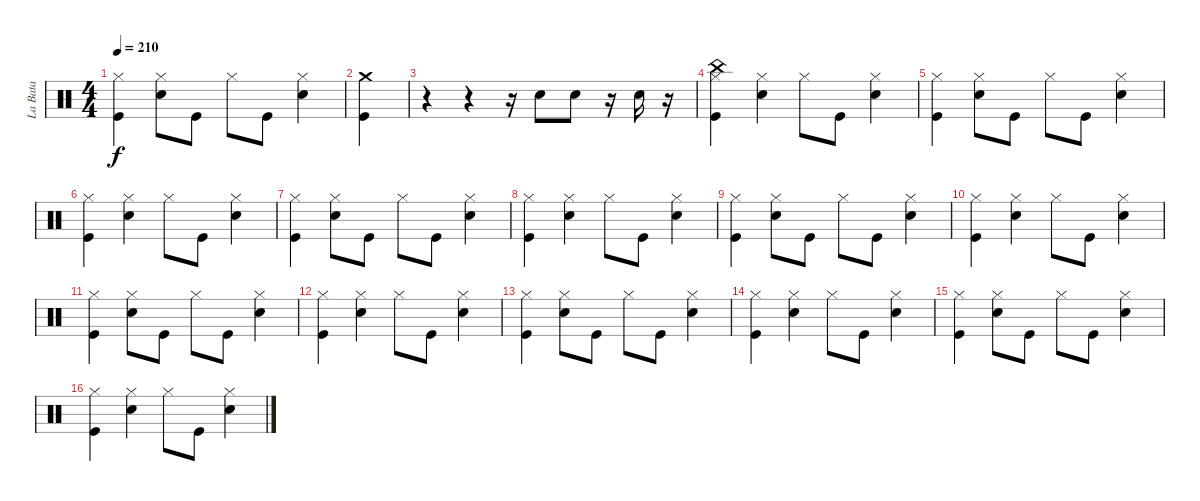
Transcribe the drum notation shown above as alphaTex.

\track ("La Bata" "La Bata") {instrument percussion}
\staff {score}
\articulation defaults
\ts (4 4)
\tempo 210
\clef neutral
\ks c
("Hi-Hat (closed)" "Kick (hit)").4{dy f} ("Snare (hit) 2" "Hi-Hat (closed)").8 "Kick (hit)".8 "Hi-Hat (closed)".8 "Kick (hit)".8 ("Hi-Hat (closed)" "Snare (hit) 2").4 |
("Kick (hit)" "Crash medium (hit)").4 |
r.4 r.4 r.16 "Snare (hit) 2".8 "Snare (hit) 2".8 r.16 "Snare (hit) 2".16 r.16 |
("Kick (hit)" "Hi-Hat (closed)" "China (hit)").4 ("Snare (hit) 2" "Hi-Hat (closed)").4 "Hi-Hat (closed)".8 "Kick (hit)".8 ("Snare (hit) 2" "Hi-Hat (closed)").4 |
("Hi-Hat (closed)" "Kick (hit)").4 ("Snare (hit) 2" "Hi-Hat (closed)").8 "Kick (hit)".8 "Hi-Hat (closed)".8 "Kick (hit)".8 ("Hi-Hat (closed)" "Snare (hit) 2").4 |
("Kick (hit)" "Hi-Hat (closed)").4 ("Snare (hit) 2" "Hi-Hat (closed)").4 "Hi-Hat (closed)".8 "Kick (hit)".8 ("Snare (hit) 2" "Hi-Hat (closed)").4 |
("Hi-Hat (closed)" "Kick (hit)").4 ("Snare (hit) 2" "Hi-Hat (closed)").8 "Kick (hit)".8 "Hi-Hat (closed)".8 "Kick (hit)".8 ("Hi-Hat (closed)" "Snare (hit) 2").4 |
("Kick (hit)" "Hi-Hat (closed)").4 ("Snare (hit) 2" "Hi-Hat (closed)").4 "Hi-Hat (closed)".8 "Kick (hit)".8 ("Snare (hit) 2" "Hi-Hat (closed)").4 |
("Hi-Hat (closed)" "Kick (hit)").4 ("Snare (hit) 2" "Hi-Hat (closed)").8 "Kick (hit)".8 "Hi-Hat (closed)".8 "Kick (hit)".8 ("Hi-Hat (closed)" "Snare (hit) 2").4 |
("Kick (hit)" "Hi-Hat (closed)").4 ("Snare (hit) 2" "Hi-Hat (closed)").4 "Hi-Hat (closed)".8 "Kick (hit)".8 ("Snare (hit) 2" "Hi-Hat (closed)").4 |
("Hi-Hat (closed)" "Kick (hit)").4 ("Snare (hit) 2" "Hi-Hat (closed)").8 "Kick (hit)".8 "Hi-Hat (closed)".8 "Kick (hit)".8 ("Hi-Hat (closed)" "Snare (hit) 2").4 |
("Kick (hit)" "Hi-Hat (closed)").4 ("Snare (hit) 2" "Hi-Hat (closed)").4 "Hi-Hat (closed)".8 "Kick (hit)".8 ("Snare (hit) 2" "Hi-Hat (closed)").4 |
("Hi-Hat (closed)" "Kick (hit)").4 ("Snare (hit) 2" "Hi-Hat (closed)").8 "Kick (hit)".8 "Hi-Hat (closed)".8 "Kick (hit)".8 ("Hi-Hat (closed)" "Snare (hit) 2").4 |
("Kick (hit)" "Hi-Hat (closed)").4 ("Snare (hit) 2" "Hi-Hat (closed)").4 "Hi-Hat (closed)".8 "Kick (hit)".8 ("Snare (hit) 2" "Hi-Hat (closed)").4 |
("Hi-Hat (closed)" "Kick (hit)").4 ("Snare (hit) 2" "Hi-Hat (closed)").8 "Kick (hit)".8 "Hi-Hat (closed)".8 "Kick (hit)".8 ("Hi-Hat (closed)" "Snare (hit) 2").4 |
("Kick (hit)" "Hi-Hat (closed)").4 ("Snare (hit) 2" "Hi-Hat (closed)").4 "Hi-Hat (closed)".8 "Kick (hit)".8 ("Snare (hit) 2" "Hi-Hat (closed)").4
